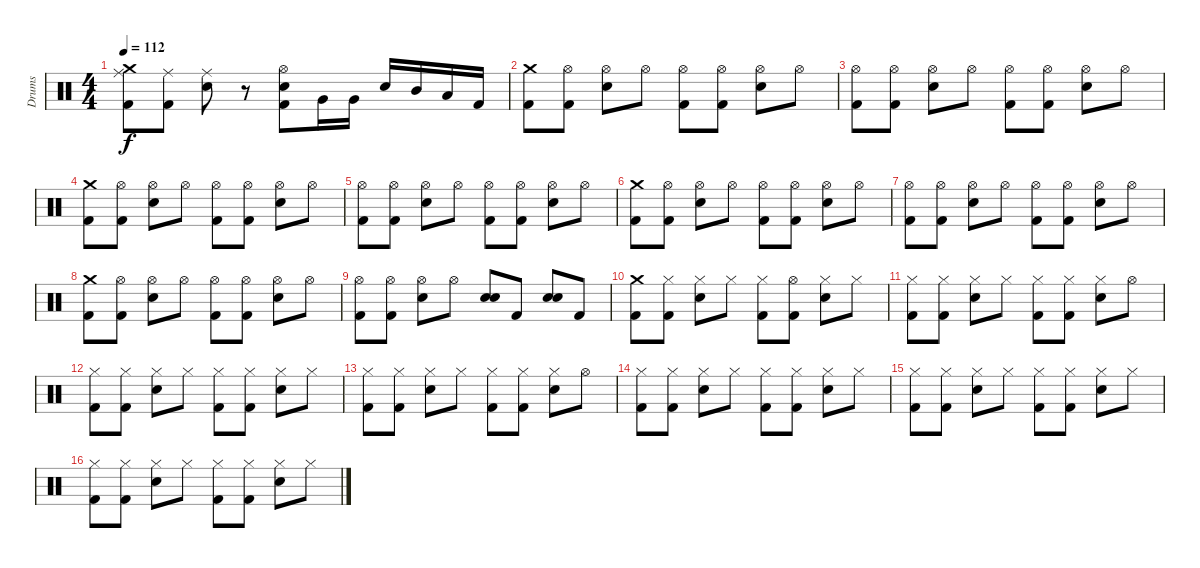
\track ("Drums" "Drums") {instrument percussion}
\staff {score}
\articulation defaults
\ts (4 4)
\tempo 112
\clef neutral
\ks c
("Kick (hit) 2" "Ride (middle)" "Crash medium (hit)").8{dy f} ("Kick (hit) 2" "Ride (middle)").8 ("Electric Snare (hit)" "Ride (middle)").8 r.8 ("Kick (hit) 2" "Electric Snare (hit)" "Hi-Hat (open)").8 "Very Low Tom (hit)".16 "Very Low Tom (hit)".16 "Electric Snare (hit)".16 "Mid Tom (hit)".16 "Low Tom (hit)".16 "Kick (hit) 2".16 |
("Kick (hit) 2" "Crash medium (hit)").8 ("Kick (hit) 2" "Hi-Hat (open)").8 ("Electric Snare (hit)" "Hi-Hat (open)").8 "Hi-Hat (open)".8 ("Kick (hit) 2" "Hi-Hat (open)").8 ("Kick (hit) 2" "Hi-Hat (open)").8 ("Electric Snare (hit)" "Hi-Hat (open)").8 "Hi-Hat (open)".8 |
("Kick (hit) 2" "Hi-Hat (open)").8 ("Kick (hit) 2" "Hi-Hat (open)").8 ("Electric Snare (hit)" "Hi-Hat (open)").8 "Hi-Hat (open)".8 ("Kick (hit) 2" "Hi-Hat (open)").8 ("Kick (hit) 2" "Hi-Hat (open)").8 ("Electric Snare (hit)" "Hi-Hat (open)").8 "Hi-Hat (open)".8 |
("Kick (hit) 2" "Crash medium (hit)").8 ("Kick (hit) 2" "Hi-Hat (open)").8 ("Electric Snare (hit)" "Hi-Hat (open)").8 "Hi-Hat (open)".8 ("Kick (hit) 2" "Hi-Hat (open)").8 ("Kick (hit) 2" "Hi-Hat (open)").8 ("Electric Snare (hit)" "Hi-Hat (open)").8 "Hi-Hat (open)".8 |
("Kick (hit) 2" "Hi-Hat (open)").8 ("Kick (hit) 2" "Hi-Hat (open)").8 ("Electric Snare (hit)" "Hi-Hat (open)").8 "Hi-Hat (open)".8 ("Kick (hit) 2" "Hi-Hat (open)").8 ("Kick (hit) 2" "Hi-Hat (open)").8 ("Electric Snare (hit)" "Hi-Hat (open)").8 "Hi-Hat (open)".8 |
("Kick (hit) 2" "Crash medium (hit)").8 ("Kick (hit) 2" "Hi-Hat (open)").8 ("Electric Snare (hit)" "Hi-Hat (open)").8 "Hi-Hat (open)".8 ("Kick (hit) 2" "Hi-Hat (open)").8 ("Kick (hit) 2" "Hi-Hat (open)").8 ("Electric Snare (hit)" "Hi-Hat (open)").8 "Hi-Hat (open)".8 |
("Kick (hit) 2" "Hi-Hat (open)").8 ("Kick (hit) 2" "Hi-Hat (open)").8 ("Electric Snare (hit)" "Hi-Hat (open)").8 "Hi-Hat (open)".8 ("Kick (hit) 2" "Hi-Hat (open)").8 ("Kick (hit) 2" "Hi-Hat (open)").8 ("Electric Snare (hit)" "Hi-Hat (open)").8 "Hi-Hat (open)".8 |
("Kick (hit) 2" "Crash medium (hit)").8 ("Kick (hit) 2" "Hi-Hat (open)").8 ("Electric Snare (hit)" "Hi-Hat (open)").8 "Hi-Hat (open)".8 ("Kick (hit) 2" "Hi-Hat (open)").8 ("Kick (hit) 2" "Hi-Hat (open)").8 ("Electric Snare (hit)" "Hi-Hat (open)").8 "Hi-Hat (open)".8 |
("Kick (hit) 2" "Hi-Hat (open)").8 ("Kick (hit) 2" "Hi-Hat (open)").8 ("Electric Snare (hit)" "Hi-Hat (open)").8 "Hi-Hat (open)".8 ("Electric Snare (hit)" "Electric Snare (hit)").8 "Kick (hit) 2".8 ("Electric Snare (hit)" "Electric Snare (hit)").8 "Kick (hit) 2".8 |
("Kick (hit) 2" "Crash medium (hit)").8 ("Kick (hit) 2" "Hi-Hat (closed)").8 ("Electric Snare (hit)" "Hi-Hat (closed)").8 "Hi-Hat (closed)".8 ("Kick (hit) 2" "Hi-Hat (closed)").8 ("Kick (hit) 2" "Hi-Hat (open)").8 ("Electric Snare (hit)" "Hi-Hat (closed)").8 "Hi-Hat (closed)".8 |
("Kick (hit) 2" "Hi-Hat (closed)").8 ("Kick (hit) 2" "Hi-Hat (closed)").8 ("Electric Snare (hit)" "Hi-Hat (closed)").8 "Hi-Hat (closed)".8 ("Kick (hit) 2" "Hi-Hat (closed)").8 ("Kick (hit) 2" "Hi-Hat (closed)").8 ("Electric Snare (hit)" "Hi-Hat (closed)").8 "Hi-Hat (open)".8 |
("Hi-Hat (closed)" "Kick (hit) 2").8 ("Kick (hit) 2" "Hi-Hat (closed)").8 ("Electric Snare (hit)" "Hi-Hat (closed)").8 "Hi-Hat (closed)".8 ("Kick (hit) 2" "Hi-Hat (closed)").8 ("Kick (hit) 2" "Hi-Hat (closed)").8 ("Electric Snare (hit)" "Hi-Hat (closed)").8 "Hi-Hat (closed)".8 |
("Kick (hit) 2" "Hi-Hat (closed)").8 ("Kick (hit) 2" "Hi-Hat (closed)").8 ("Electric Snare (hit)" "Hi-Hat (closed)").8 "Hi-Hat (closed)".8 ("Kick (hit) 2" "Hi-Hat (closed)").8 ("Kick (hit) 2" "Hi-Hat (closed)").8 ("Electric Snare (hit)" "Hi-Hat (closed)").8 "Hi-Hat (open)".8 |
("Kick (hit) 2" "Hi-Hat (closed)").8 ("Kick (hit) 2" "Hi-Hat (closed)").8 ("Electric Snare (hit)" "Hi-Hat (closed)").8 "Hi-Hat (closed)".8 ("Kick (hit) 2" "Hi-Hat (closed)").8 ("Kick (hit) 2" "Hi-Hat (closed)").8 ("Electric Snare (hit)" "Hi-Hat (closed)").8 "Hi-Hat (closed)".8 |
("Kick (hit) 2" "Hi-Hat (closed)").8 ("Kick (hit) 2" "Hi-Hat (closed)").8 ("Electric Snare (hit)" "Hi-Hat (closed)").8 "Hi-Hat (closed)".8 ("Kick (hit) 2" "Hi-Hat (closed)").8 ("Kick (hit) 2" "Hi-Hat (closed)").8 ("Electric Snare (hit)" "Hi-Hat (closed)").8 "Hi-Hat (closed)".8 |
("Kick (hit) 2" "Hi-Hat (closed)").8 ("Kick (hit) 2" "Hi-Hat (closed)").8 ("Electric Snare (hit)" "Hi-Hat (closed)").8 "Hi-Hat (closed)".8 ("Kick (hit) 2" "Hi-Hat (closed)").8 ("Kick (hit) 2" "Hi-Hat (closed)").8 ("Electric Snare (hit)" "Hi-Hat (closed)").8 "Hi-Hat (closed)".8
